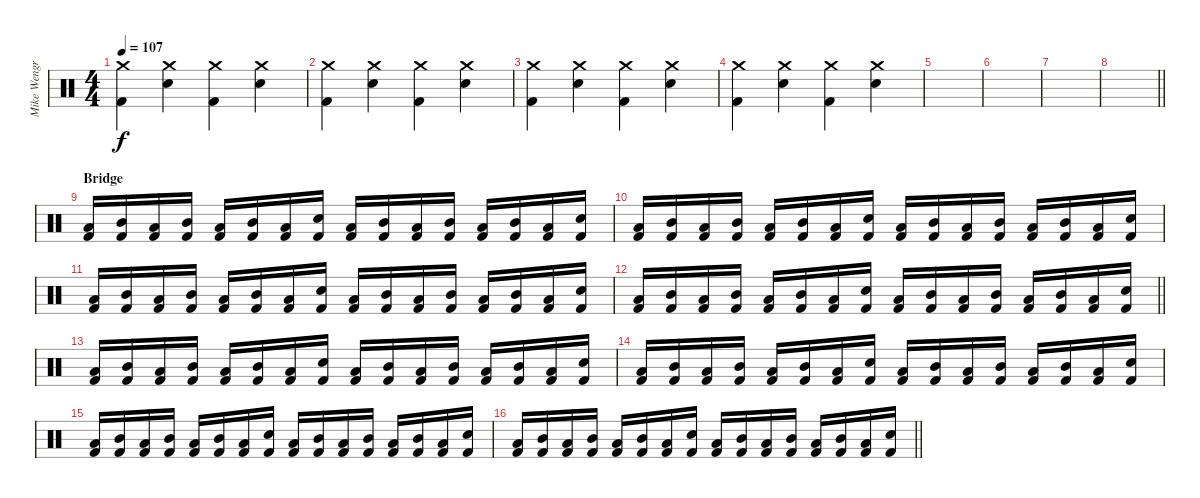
\track ("Mike Wengren" "Mike Wengr") {instrument percussion}
\staff {score}
\articulation defaults
\ts (4 4)
\tempo 107
\clef neutral
\ks c
("Kick (hit) 2" "Crash medium (hit)").4{dy f} ("Electric Snare (hit)" "Crash medium (hit)").4 ("Kick (hit) 2" "Crash medium (hit)").4 ("Electric Snare (hit)" "Crash medium (hit)").4 |
("Kick (hit) 2" "Crash medium (hit)").4 ("Electric Snare (hit)" "Crash medium (hit)").4 ("Kick (hit) 2" "Crash medium (hit)").4 ("Electric Snare (hit)" "Crash medium (hit)").4 |
("Kick (hit) 2" "Crash medium (hit)").4 ("Electric Snare (hit)" "Crash medium (hit)").4 ("Kick (hit) 2" "Crash medium (hit)").4 ("Electric Snare (hit)" "Crash medium (hit)").4 |
("Kick (hit) 2" "Crash medium (hit)").4 ("Electric Snare (hit)" "Crash medium (hit)").4 ("Kick (hit) 2" "Crash medium (hit)").4 ("Electric Snare (hit)" "Crash medium (hit)").4 |
|
|
|
\barLineRight lightlight
|
\section ("" "Bridge")
("Kick (hit) 2" "Low Tom (hit)").16 ("Kick (hit) 2" "Mid Tom (hit)").16 ("Kick (hit) 2" "Low Tom (hit)").16 ("Kick (hit) 2" "Mid Tom (hit)").16 ("Kick (hit) 2" "Low Tom (hit)").16 ("Kick (hit) 2" "Mid Tom (hit)").16 ("Kick (hit) 2" "Low Tom (hit)").16 ("Kick (hit) 2" "Electric Snare (hit)").16 ("Kick (hit) 2" "Low Tom (hit)").16 ("Kick (hit) 2" "Mid Tom (hit)").16 ("Kick (hit) 2" "Low Tom (hit)").16 ("Kick (hit) 2" "Mid Tom (hit)").16 ("Kick (hit) 2" "Low Tom (hit)").16 ("Kick (hit) 2" "Mid Tom (hit)").16 ("Kick (hit) 2" "Low Tom (hit)").16 ("Kick (hit) 2" "Electric Snare (hit)").16 |
("Kick (hit) 2" "Low Tom (hit)").16 ("Kick (hit) 2" "Mid Tom (hit)").16 ("Kick (hit) 2" "Low Tom (hit)").16 ("Kick (hit) 2" "Mid Tom (hit)").16 ("Kick (hit) 2" "Low Tom (hit)").16 ("Kick (hit) 2" "Mid Tom (hit)").16 ("Kick (hit) 2" "Low Tom (hit)").16 ("Kick (hit) 2" "Electric Snare (hit)").16 ("Kick (hit) 2" "Low Tom (hit)").16 ("Kick (hit) 2" "Mid Tom (hit)").16 ("Kick (hit) 2" "Low Tom (hit)").16 ("Kick (hit) 2" "Mid Tom (hit)").16 ("Kick (hit) 2" "Low Tom (hit)").16 ("Kick (hit) 2" "Mid Tom (hit)").16 ("Kick (hit) 2" "Low Tom (hit)").16 ("Kick (hit) 2" "Electric Snare (hit)").16 |
("Kick (hit) 2" "Low Tom (hit)").16 ("Kick (hit) 2" "Mid Tom (hit)").16 ("Kick (hit) 2" "Low Tom (hit)").16 ("Kick (hit) 2" "Mid Tom (hit)").16 ("Kick (hit) 2" "Low Tom (hit)").16 ("Kick (hit) 2" "Mid Tom (hit)").16 ("Kick (hit) 2" "Low Tom (hit)").16 ("Kick (hit) 2" "Electric Snare (hit)").16 ("Kick (hit) 2" "Low Tom (hit)").16 ("Kick (hit) 2" "Mid Tom (hit)").16 ("Kick (hit) 2" "Low Tom (hit)").16 ("Kick (hit) 2" "Mid Tom (hit)").16 ("Kick (hit) 2" "Low Tom (hit)").16 ("Kick (hit) 2" "Mid Tom (hit)").16 ("Kick (hit) 2" "Low Tom (hit)").16 ("Kick (hit) 2" "Electric Snare (hit)").16 |
\barLineRight lightlight
("Kick (hit) 2" "Low Tom (hit)").16 ("Kick (hit) 2" "Mid Tom (hit)").16 ("Kick (hit) 2" "Low Tom (hit)").16 ("Kick (hit) 2" "Mid Tom (hit)").16 ("Kick (hit) 2" "Low Tom (hit)").16 ("Kick (hit) 2" "Mid Tom (hit)").16 ("Kick (hit) 2" "Low Tom (hit)").16 ("Kick (hit) 2" "Electric Snare (hit)").16 ("Kick (hit) 2" "Low Tom (hit)").16 ("Kick (hit) 2" "Mid Tom (hit)").16 ("Kick (hit) 2" "Low Tom (hit)").16 ("Kick (hit) 2" "Mid Tom (hit)").16 ("Kick (hit) 2" "Low Tom (hit)").16 ("Kick (hit) 2" "Mid Tom (hit)").16 ("Kick (hit) 2" "Low Tom (hit)").16 ("Kick (hit) 2" "Electric Snare (hit)").16 |
("Kick (hit) 2" "Low Tom (hit)").16 ("Kick (hit) 2" "Mid Tom (hit)").16 ("Kick (hit) 2" "Low Tom (hit)").16 ("Kick (hit) 2" "Mid Tom (hit)").16 ("Kick (hit) 2" "Low Tom (hit)").16 ("Kick (hit) 2" "Mid Tom (hit)").16 ("Kick (hit) 2" "Low Tom (hit)").16 ("Kick (hit) 2" "Electric Snare (hit)").16 ("Kick (hit) 2" "Low Tom (hit)").16 ("Kick (hit) 2" "Mid Tom (hit)").16 ("Kick (hit) 2" "Low Tom (hit)").16 ("Kick (hit) 2" "Mid Tom (hit)").16 ("Kick (hit) 2" "Low Tom (hit)").16 ("Kick (hit) 2" "Mid Tom (hit)").16 ("Kick (hit) 2" "Low Tom (hit)").16 ("Kick (hit) 2" "Electric Snare (hit)").16 |
("Kick (hit) 2" "Low Tom (hit)").16 ("Kick (hit) 2" "Mid Tom (hit)").16 ("Kick (hit) 2" "Low Tom (hit)").16 ("Kick (hit) 2" "Mid Tom (hit)").16 ("Kick (hit) 2" "Low Tom (hit)").16 ("Kick (hit) 2" "Mid Tom (hit)").16 ("Kick (hit) 2" "Low Tom (hit)").16 ("Kick (hit) 2" "Electric Snare (hit)").16 ("Kick (hit) 2" "Low Tom (hit)").16 ("Kick (hit) 2" "Mid Tom (hit)").16 ("Kick (hit) 2" "Low Tom (hit)").16 ("Kick (hit) 2" "Mid Tom (hit)").16 ("Kick (hit) 2" "Low Tom (hit)").16 ("Kick (hit) 2" "Mid Tom (hit)").16 ("Kick (hit) 2" "Low Tom (hit)").16 ("Kick (hit) 2" "Electric Snare (hit)").16 |
("Kick (hit) 2" "Low Tom (hit)").16 ("Kick (hit) 2" "Mid Tom (hit)").16 ("Kick (hit) 2" "Low Tom (hit)").16 ("Kick (hit) 2" "Mid Tom (hit)").16 ("Kick (hit) 2" "Low Tom (hit)").16 ("Kick (hit) 2" "Mid Tom (hit)").16 ("Kick (hit) 2" "Low Tom (hit)").16 ("Kick (hit) 2" "Electric Snare (hit)").16 ("Kick (hit) 2" "Low Tom (hit)").16 ("Kick (hit) 2" "Mid Tom (hit)").16 ("Kick (hit) 2" "Low Tom (hit)").16 ("Kick (hit) 2" "Mid Tom (hit)").16 ("Kick (hit) 2" "Low Tom (hit)").16 ("Kick (hit) 2" "Mid Tom (hit)").16 ("Kick (hit) 2" "Low Tom (hit)").16 ("Kick (hit) 2" "Electric Snare (hit)").16 |
\barLineRight lightlight
("Kick (hit) 2" "Low Tom (hit)").16 ("Kick (hit) 2" "Mid Tom (hit)").16 ("Kick (hit) 2" "Low Tom (hit)").16 ("Kick (hit) 2" "Mid Tom (hit)").16 ("Kick (hit) 2" "Low Tom (hit)").16 ("Kick (hit) 2" "Mid Tom (hit)").16 ("Kick (hit) 2" "Low Tom (hit)").16 ("Kick (hit) 2" "Electric Snare (hit)").16 ("Kick (hit) 2" "Low Tom (hit)").16 ("Kick (hit) 2" "Mid Tom (hit)").16 ("Kick (hit) 2" "Low Tom (hit)").16 ("Kick (hit) 2" "Mid Tom (hit)").16 ("Kick (hit) 2" "Low Tom (hit)").16 ("Kick (hit) 2" "Mid Tom (hit)").16 ("Kick (hit) 2" "Low Tom (hit)").16 ("Kick (hit) 2" "Electric Snare (hit)").16
